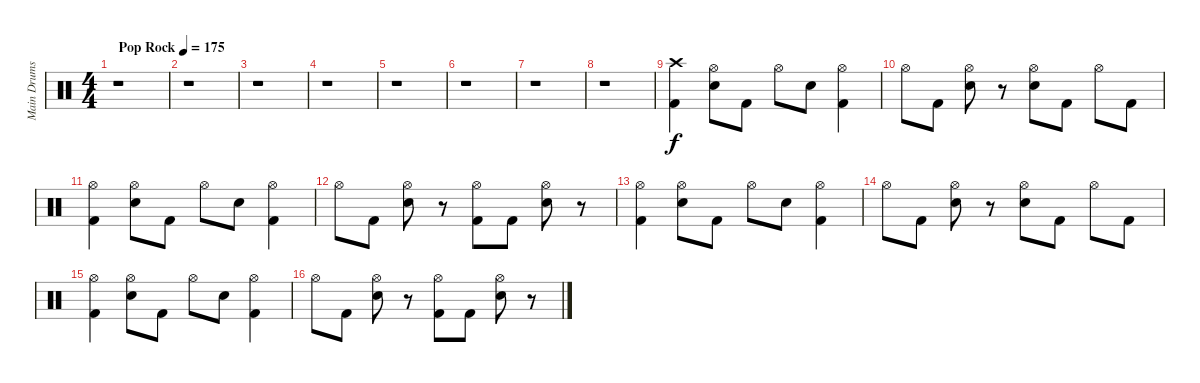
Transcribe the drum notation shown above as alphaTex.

\track ("Main Drums" "Main Drums") {instrument percussion}
\staff {score}
\articulation defaults
\ts (4 4)
\tempo (175 "Pop Rock")
\clef neutral
\ks c
r.1{dy f} |
r.1 |
r.1 |
r.1 |
r.1 |
r.1 |
r.1 |
r.1 |
("Crash high (hit)" "Kick (hit) 2").4 ("Hi-Hat (open)" "Electric Snare (hit)").8 "Kick (hit) 2".8 "Hi-Hat (open)".8 "Electric Snare (hit)".8 ("Hi-Hat (open)" "Kick (hit) 2").4 |
"Hi-Hat (open)".8 "Kick (hit) 2".8 ("Hi-Hat (open)" "Electric Snare (hit)").8 r.8 ("Hi-Hat (open)" "Electric Snare (hit)").8 "Kick (hit) 2".8 "Hi-Hat (open)".8 "Kick (hit) 2".8 |
("Hi-Hat (open)" "Kick (hit) 2").4 ("Hi-Hat (open)" "Electric Snare (hit)").8 "Kick (hit) 2".8 "Hi-Hat (open)".8 "Electric Snare (hit)".8 ("Hi-Hat (open)" "Kick (hit) 2").4 |
"Hi-Hat (open)".8 "Kick (hit) 2".8 ("Hi-Hat (open)" "Electric Snare (hit)").8 r.8 ("Hi-Hat (open)" "Kick (hit) 2").8 "Kick (hit) 2".8 ("Hi-Hat (open)" "Electric Snare (hit)").8 r.8 |
("Hi-Hat (open)" "Kick (hit) 2").4 ("Hi-Hat (open)" "Electric Snare (hit)").8 "Kick (hit) 2".8 "Hi-Hat (open)".8 "Electric Snare (hit)".8 ("Hi-Hat (open)" "Kick (hit) 2").4 |
"Hi-Hat (open)".8 "Kick (hit) 2".8 ("Hi-Hat (open)" "Electric Snare (hit)").8 r.8 ("Hi-Hat (open)" "Electric Snare (hit)").8 "Kick (hit) 2".8 "Hi-Hat (open)".8 "Kick (hit) 2".8 |
("Hi-Hat (open)" "Kick (hit) 2").4 ("Hi-Hat (open)" "Electric Snare (hit)").8 "Kick (hit) 2".8 "Hi-Hat (open)".8 "Electric Snare (hit)".8 ("Hi-Hat (open)" "Kick (hit) 2").4 |
"Hi-Hat (open)".8 "Kick (hit) 2".8 ("Hi-Hat (open)" "Electric Snare (hit)").8 r.8 ("Hi-Hat (open)" "Kick (hit) 2").8 "Kick (hit) 2".8 ("Hi-Hat (open)" "Electric Snare (hit)").8 r.8
